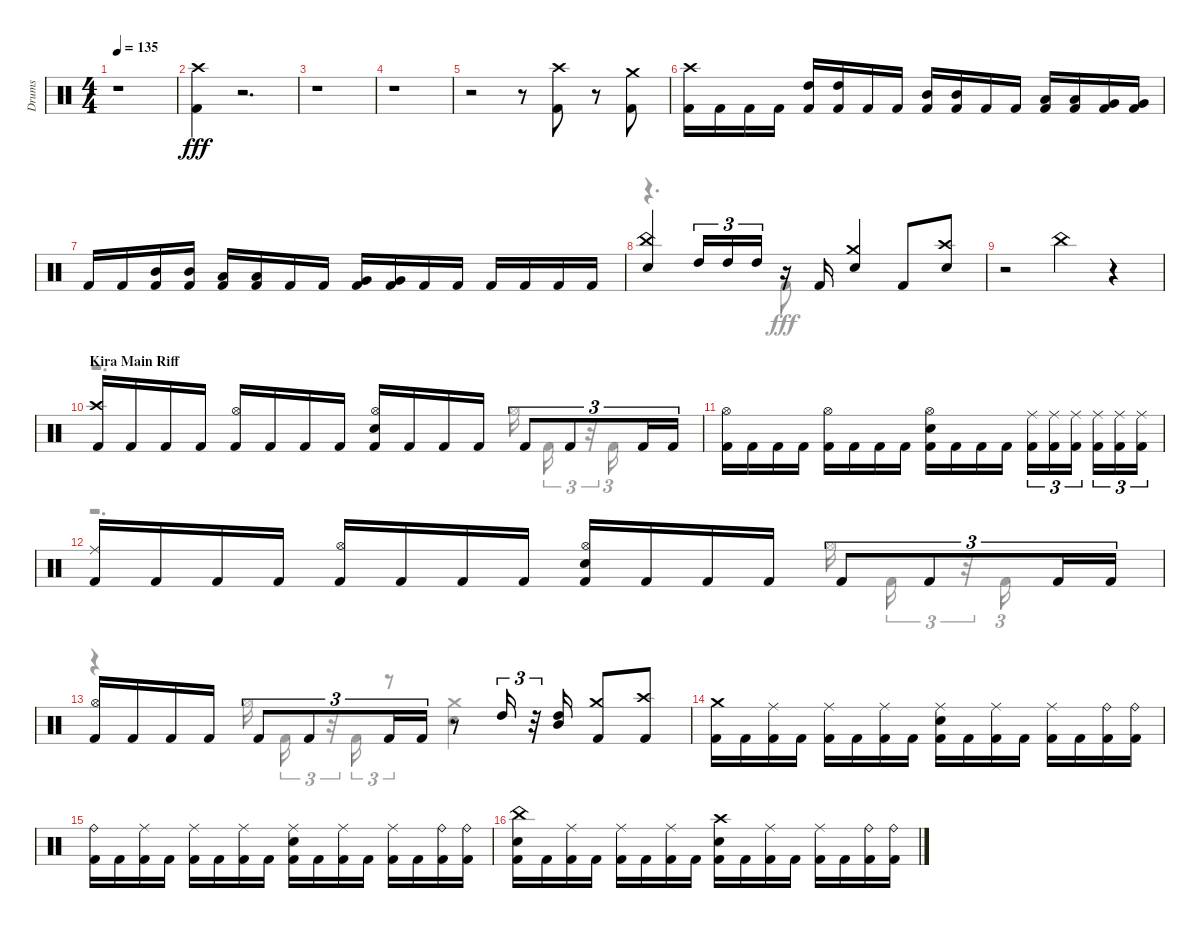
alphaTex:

\track ("Drums" "Drums") {instrument percussion}
\staff {score}
\articulation defaults
\voice
\ts (4 4)
\tempo 135
\clef neutral
\ks aminor
r.1{dy fff} |
("Kick (hit) 2" "Crash high (hit)").4 r.2{d} |
r.1 |
r.1 |
r.2 r.8 ("Kick (hit) 2" "Crash high (hit)").8 r.8 ("Kick (hit) 2" "Crash medium (hit)").8 |
("Crash high (hit)" "Kick (hit) 2").16 "Kick (hit) 2".16 "Kick (hit) 2".16 "Kick (hit) 2".16 ("High Tom (hit)" "Kick (hit) 2").16 ("Kick (hit) 2" "High Tom (hit)").16 "Kick (hit) 2".16 "Kick (hit) 2".16 ("Mid Tom (hit)" "Kick (hit) 2").16 ("Mid Tom (hit)" "Kick (hit) 2").16 "Kick (hit) 2".16 "Kick (hit) 2".16 ("Kick (hit) 2" "Low Tom (hit)").16 ("Low Tom (hit)" "Kick (hit) 2").16 ("Very Low Tom (hit)" "Kick (hit) 2").16 ("Kick (hit) 2" "Very Low Tom (hit)").16 |
"Kick (hit) 2".16 "Kick (hit) 2".16 ("Kick (hit) 2" "Mid Tom (hit)").16 ("Kick (hit) 2" "Mid Tom (hit)").16 ("Kick (hit) 2" "Low Tom (hit)").16 ("Low Tom (hit)" "Kick (hit) 2").16 "Kick (hit) 2".16 "Kick (hit) 2".16 ("Kick (hit) 2" "Very Low Tom (hit)").16 ("Very Low Tom (hit)" "Kick (hit) 2").16 "Kick (hit) 2".16 "Kick (hit) 2".16 "Kick (hit) 2".16 "Kick (hit) 2".16 "Kick (hit) 2".16 "Kick (hit) 2".16 |
("China (hit)" "Snare (hit) 2").4 "High Tom (hit)".16{tu (3 2)} "High Tom (hit)".16{tu (3 2)} "High Tom (hit)".16{tu (3 2)} r.16 "Kick (hit) 2".16 ("Snare (hit) 2" "Crash medium (hit)").4 "Kick (hit) 2".8 ("Snare (hit) 2" "Crash high (hit)").8 |
r.2 "China (hit)".4 r.4 |
\section ("" "Kira Main Riff")
("Kick (hit) 2" "Crash high (hit)").16 "Kick (hit) 2".16 "Kick (hit) 2".16 "Kick (hit) 2".16 ("Kick (hit) 2" "Hi-Hat (open)").16 "Kick (hit) 2".16 "Kick (hit) 2".16 "Kick (hit) 2".16 ("Snare (hit) 2" "Kick (hit) 2" "Hi-Hat (open)").16 "Kick (hit) 2".16 "Kick (hit) 2".16 "Kick (hit) 2".16 "Kick (hit) 2".8{tu (3 2)} "Kick (hit) 2".8{tu (3 2)} "Kick (hit) 2".16{tu (3 2)} "Kick (hit) 2".16{tu (3 2)} |
("Hi-Hat (open)" "Kick (hit) 2").16 "Kick (hit) 2".16 "Kick (hit) 2".16 "Kick (hit) 2".16 ("Hi-Hat (open)" "Kick (hit) 2").16 "Kick (hit) 2".16 "Kick (hit) 2".16 "Kick (hit) 2".16 ("Kick (hit) 2" "Snare (hit) 2" "Hi-Hat (open)").16 "Kick (hit) 2".16 "Kick (hit) 2".16 "Kick (hit) 2".16 ("Kick (hit) 2" "Ride (middle)").16{tu (3 2)} ("Ride (middle)" "Kick (hit) 2").16{tu (3 2)} ("Ride (middle)" "Kick (hit) 2").16{tu (3 2)} ("Ride (middle)" "Kick (hit) 2").16{tu (3 2)} ("Kick (hit) 2" "Ride (middle)").16{tu (3 2)} ("Kick (hit) 2" "Ride (middle)").16{tu (3 2)} |
("Ride (middle)" "Kick (hit) 2").16 "Kick (hit) 2".16 "Kick (hit) 2".16 "Kick (hit) 2".16 ("Kick (hit) 2" "Hi-Hat (open)").16 "Kick (hit) 2".16 "Kick (hit) 2".16 "Kick (hit) 2".16 ("Hi-Hat (open)" "Kick (hit) 2" "Snare (hit) 2").16 "Kick (hit) 2".16 "Kick (hit) 2".16 "Kick (hit) 2".16 "Kick (hit) 2".8{tu (3 2)} "Kick (hit) 2".8{tu (3 2)} "Kick (hit) 2".16{tu (3 2)} "Kick (hit) 2".16{tu (3 2)} |
("Hi-Hat (open)" "Kick (hit) 2").16 "Kick (hit) 2".16 "Kick (hit) 2".16 "Kick (hit) 2".16 "Kick (hit) 2".8{tu (3 2)} "Kick (hit) 2".8{tu (3 2)} "Kick (hit) 2".16{tu (3 2)} "Kick (hit) 2".16{tu (3 2)} r.8 "High Tom (hit)".16{tu (3 2)} r.32{tu (3 2)} ("High Tom (hit)" "Mid Tom (hit)").16 ("Kick (hit) 2" "Crash medium (hit)").8 ("Crash high (hit)" "Kick (hit) 2").8 |
("Kick (hit) 2" "Crash medium (hit)").16 "Kick (hit) 2".16 ("Kick (hit) 2" "Ride (middle)").16 "Kick (hit) 2".16 ("Kick (hit) 2" "Ride (middle)").16 "Kick (hit) 2".16 ("Ride (middle)" "Kick (hit) 2").16 "Kick (hit) 2".16 ("Snare (hit) 2" "Ride (middle)" "Kick (hit) 2").16 "Kick (hit) 2".16 ("Ride (middle)" "Kick (hit) 2").16 "Kick (hit) 2".16 ("Ride (middle)" "Kick (hit) 2").16 "Kick (hit) 2".16 ("Ride (bell)" "Kick (hit) 2").16 ("Kick (hit) 2" "Ride (bell)").16 |
("Ride (bell)" "Kick (hit) 2").16 "Kick (hit) 2".16 ("Kick (hit) 2" "Ride (middle)").16 "Kick (hit) 2".16 ("Ride (middle)" "Kick (hit) 2").16 "Kick (hit) 2".16 ("Kick (hit) 2" "Ride (middle)").16 "Kick (hit) 2".16 ("Kick (hit) 2" "Ride (middle)" "Snare (hit) 2").16 "Kick (hit) 2".16 ("Kick (hit) 2" "Ride (middle)").16 "Kick (hit) 2".16 ("Ride (middle)" "Kick (hit) 2").16 "Kick (hit) 2".16 ("Kick (hit) 2" "Ride (bell)").16 ("Kick (hit) 2" "Ride (bell)").16 |
("Snare (hit) 2" "Kick (hit) 2" "China (hit)").16 "Kick (hit) 2".16 ("Kick (hit) 2" "Ride (middle)").16 "Kick (hit) 2".16 ("Ride (middle)" "Kick (hit) 2").16 "Kick (hit) 2".16 ("Kick (hit) 2" "Ride (middle)").16 "Kick (hit) 2".16 ("Kick (hit) 2" "Crash high (hit)" "Snare (hit) 2").16 "Kick (hit) 2".16 ("Kick (hit) 2" "Ride (middle)").16 "Kick (hit) 2".16 ("Kick (hit) 2" "Ride (middle)").16 "Kick (hit) 2".16 ("Ride (bell)" "Kick (hit) 2").16 ("Ride (bell)" "Kick (hit) 2").16
\voice
\clef neutral
\ottava regular
\simile none
\ks aminor
|
|
|
|
|
|
|
r.4{d} "Kick (hit) 2".8 |
|
r.2{d} "Hi-Hat (open)".16 "Kick (hit) 2".16{tu (3 2)} r.32{tu (3 2)} "Kick (hit) 2".16{tu (3 2)} |
|
r.2{d} "Hi-Hat (open)".16 "Kick (hit) 2".16{tu (3 2)} r.32{tu (3 2)} "Kick (hit) 2".16{tu (3 2)} |
r.4 "Hi-Hat (open)".16 "Kick (hit) 2".16{tu (3 2)} r.32{tu (3 2)} "Kick (hit) 2".16{tu (3 2)} r.8{tu (3 2)} ("Snare (hit) 2" "Crash medium (hit)").4 |
|
|
